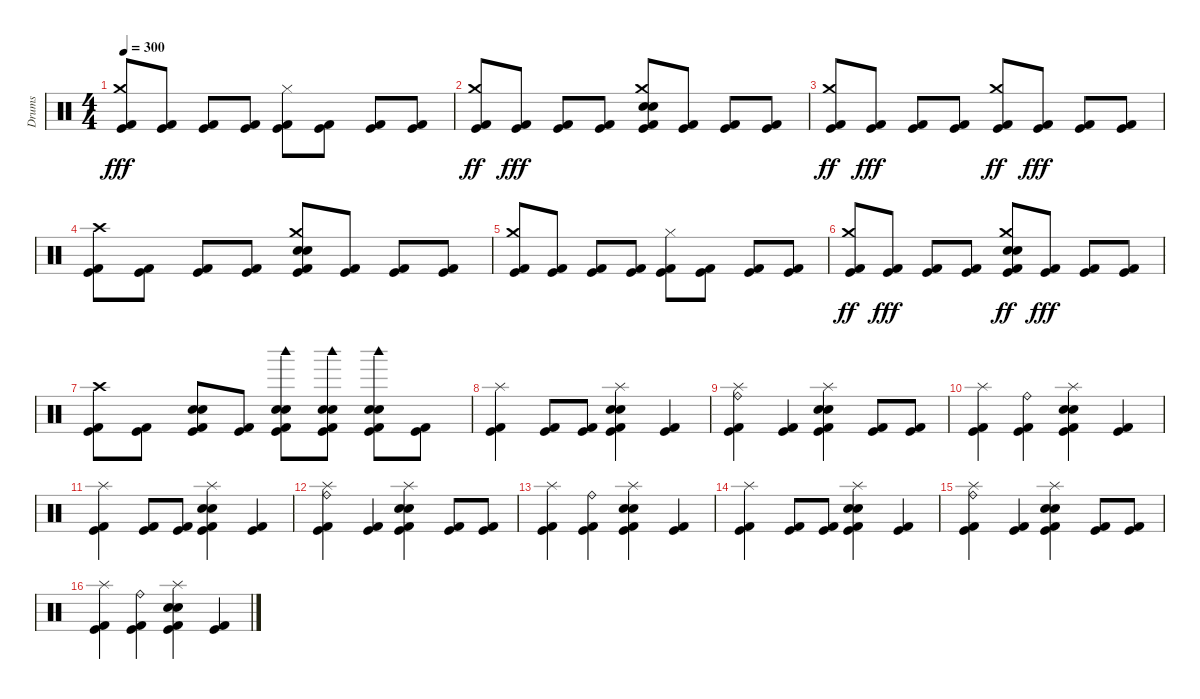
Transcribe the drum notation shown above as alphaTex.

\track ("Drums" "Drums") {instrument percussion}
\staff {score}
\articulation defaults
\ts (4 4)
\tempo 300
\clef neutral
\ks c
("Kick (hit) 2" "Crash medium (hit)" "Kick (hit)").8{dy fff} ("Kick (hit) 2" "Kick (hit)").8 ("Kick (hit) 2" "Kick (hit)").8 ("Kick (hit) 2" "Kick (hit)").8 ("Kick (hit) 2" "Hi-Hat (closed)" "Kick (hit)").8 ("Kick (hit) 2" "Kick (hit)").8 ("Kick (hit) 2" "Kick (hit)").8 ("Kick (hit) 2" "Kick (hit)").8 |
("Kick (hit) 2" "Kick (hit)" "Crash medium (hit)").8{dy ff} ("Kick (hit) 2" "Kick (hit)").8{dy fff} ("Kick (hit) 2" "Kick (hit)").8 ("Kick (hit) 2" "Kick (hit)").8 ("Kick (hit) 2" "Crash medium (hit)" "Snare (hit) 2" "Electric Snare (hit)" "Kick (hit)").8 ("Kick (hit) 2" "Kick (hit)").8 ("Kick (hit) 2" "Kick (hit)").8 ("Kick (hit) 2" "Kick (hit)").8 |
("Kick (hit) 2" "Kick (hit)" "Crash medium (hit)").8{dy ff} ("Kick (hit) 2" "Kick (hit)").8{dy fff} ("Kick (hit) 2" "Kick (hit)").8 ("Kick (hit) 2" "Kick (hit)").8 ("Kick (hit) 2" "Kick (hit)" "Crash medium (hit)").8{dy ff} ("Kick (hit) 2" "Kick (hit)").8{dy fff} ("Kick (hit) 2" "Kick (hit)").8 ("Kick (hit) 2" "Kick (hit)").8 |
("Kick (hit) 2" "Kick (hit)" "Crash high (hit)").8 ("Kick (hit) 2" "Kick (hit)").8 ("Kick (hit) 2" "Kick (hit)").8 ("Kick (hit) 2" "Kick (hit)").8 ("Kick (hit) 2" "Kick (hit)" "Electric Snare (hit)" "Crash medium (hit)" "Snare (hit) 2").8 ("Kick (hit) 2" "Kick (hit)").8 ("Kick (hit) 2" "Kick (hit)").8 ("Kick (hit) 2" "Kick (hit)").8 |
("Kick (hit) 2" "Crash medium (hit)" "Kick (hit)").8 ("Kick (hit) 2" "Kick (hit)").8 ("Kick (hit) 2" "Kick (hit)").8 ("Kick (hit) 2" "Kick (hit)").8 ("Kick (hit) 2" "Hi-Hat (closed)" "Kick (hit)").8 ("Kick (hit) 2" "Kick (hit)").8 ("Kick (hit) 2" "Kick (hit)").8 ("Kick (hit) 2" "Kick (hit)").8 |
("Kick (hit) 2" "Kick (hit)" "Crash medium (hit)").8{dy ff} ("Kick (hit) 2" "Kick (hit)").8{dy fff} ("Kick (hit) 2" "Kick (hit)").8 ("Kick (hit) 2" "Kick (hit)").8 ("Kick (hit) 2" "Kick (hit)" "Snare (hit) 2" "Electric Snare (hit)" "Crash medium (hit)").8{dy ff} ("Kick (hit) 2" "Kick (hit)").8{dy fff} ("Kick (hit) 2" "Kick (hit)").8 ("Kick (hit) 2" "Kick (hit)").8 |
("Kick (hit) 2" "Crash high (hit)" "Kick (hit)").8 ("Kick (hit) 2" "Kick (hit)").8 ("Kick (hit) 2" "Electric Snare (hit)" "Snare (hit) 2" "Kick (hit)").8 ("Kick (hit) 2" "Kick (hit)").8 ("Kick (hit) 2" "Woodblock high (hit)" "Snare (hit) 2" "Electric Snare (hit)" "Kick (hit)").8 ("Kick (hit) 2" "Woodblock high (hit)" "Snare (hit) 2" "Electric Snare (hit)" "Kick (hit)").8 ("Kick (hit) 2" "Woodblock high (hit)" "Snare (hit) 2" "Electric Snare (hit)" "Kick (hit)").8 ("Kick (hit) 2" "Kick (hit)").8 |
("Kick (hit) 2" "Splash (hit)" "Kick (hit)").4 ("Kick (hit) 2" "Kick (hit)").8 ("Kick (hit) 2" "Kick (hit)").8 ("Kick (hit) 2" "Snare (hit) 2" "Electric Snare (hit)" "Splash (hit)" "Kick (hit)").4 ("Kick (hit) 2" "Kick (hit)").4 |
("Kick (hit) 2" "Ride (bell)" "Splash (hit)" "Kick (hit)").4 ("Kick (hit) 2" "Kick (hit)").4 ("Kick (hit) 2" "Electric Snare (hit)" "Snare (hit) 2" "Splash (hit)" "Kick (hit)").4 ("Kick (hit) 2" "Kick (hit)").8 ("Kick (hit) 2" "Kick (hit)").8 |
("Kick (hit) 2" "Splash (hit)" "Kick (hit)").4 ("Kick (hit) 2" "Ride (bell)" "Kick (hit)").4 ("Kick (hit) 2" "Snare (hit) 2" "Electric Snare (hit)" "Splash (hit)" "Kick (hit)").4 ("Kick (hit) 2" "Kick (hit)").4 |
("Kick (hit) 2" "Splash (hit)" "Kick (hit)").4 ("Kick (hit) 2" "Kick (hit)").8 ("Kick (hit) 2" "Kick (hit)").8 ("Kick (hit) 2" "Snare (hit) 2" "Electric Snare (hit)" "Splash (hit)" "Kick (hit)").4 ("Kick (hit) 2" "Kick (hit)").4 |
("Kick (hit) 2" "Ride (bell)" "Splash (hit)" "Kick (hit)").4 ("Kick (hit) 2" "Kick (hit)").4 ("Kick (hit) 2" "Electric Snare (hit)" "Snare (hit) 2" "Splash (hit)" "Kick (hit)").4 ("Kick (hit) 2" "Kick (hit)").8 ("Kick (hit) 2" "Kick (hit)").8 |
("Kick (hit) 2" "Splash (hit)" "Kick (hit)").4 ("Kick (hit) 2" "Ride (bell)" "Kick (hit)").4 ("Kick (hit) 2" "Snare (hit) 2" "Electric Snare (hit)" "Splash (hit)" "Kick (hit)").4 ("Kick (hit) 2" "Kick (hit)").4 |
("Kick (hit) 2" "Splash (hit)" "Kick (hit)").4 ("Kick (hit) 2" "Kick (hit)").8 ("Kick (hit) 2" "Kick (hit)").8 ("Kick (hit) 2" "Snare (hit) 2" "Electric Snare (hit)" "Splash (hit)" "Kick (hit)").4 ("Kick (hit) 2" "Kick (hit)").4 |
("Kick (hit) 2" "Ride (bell)" "Splash (hit)" "Kick (hit)").4 ("Kick (hit) 2" "Kick (hit)").4 ("Kick (hit) 2" "Electric Snare (hit)" "Snare (hit) 2" "Splash (hit)" "Kick (hit)").4 ("Kick (hit) 2" "Kick (hit)").8 ("Kick (hit) 2" "Kick (hit)").8 |
("Kick (hit) 2" "Splash (hit)" "Kick (hit)").4 ("Kick (hit) 2" "Ride (bell)" "Kick (hit)").4 ("Kick (hit) 2" "Snare (hit) 2" "Electric Snare (hit)" "Splash (hit)" "Kick (hit)").4 ("Kick (hit) 2" "Kick (hit)").4
